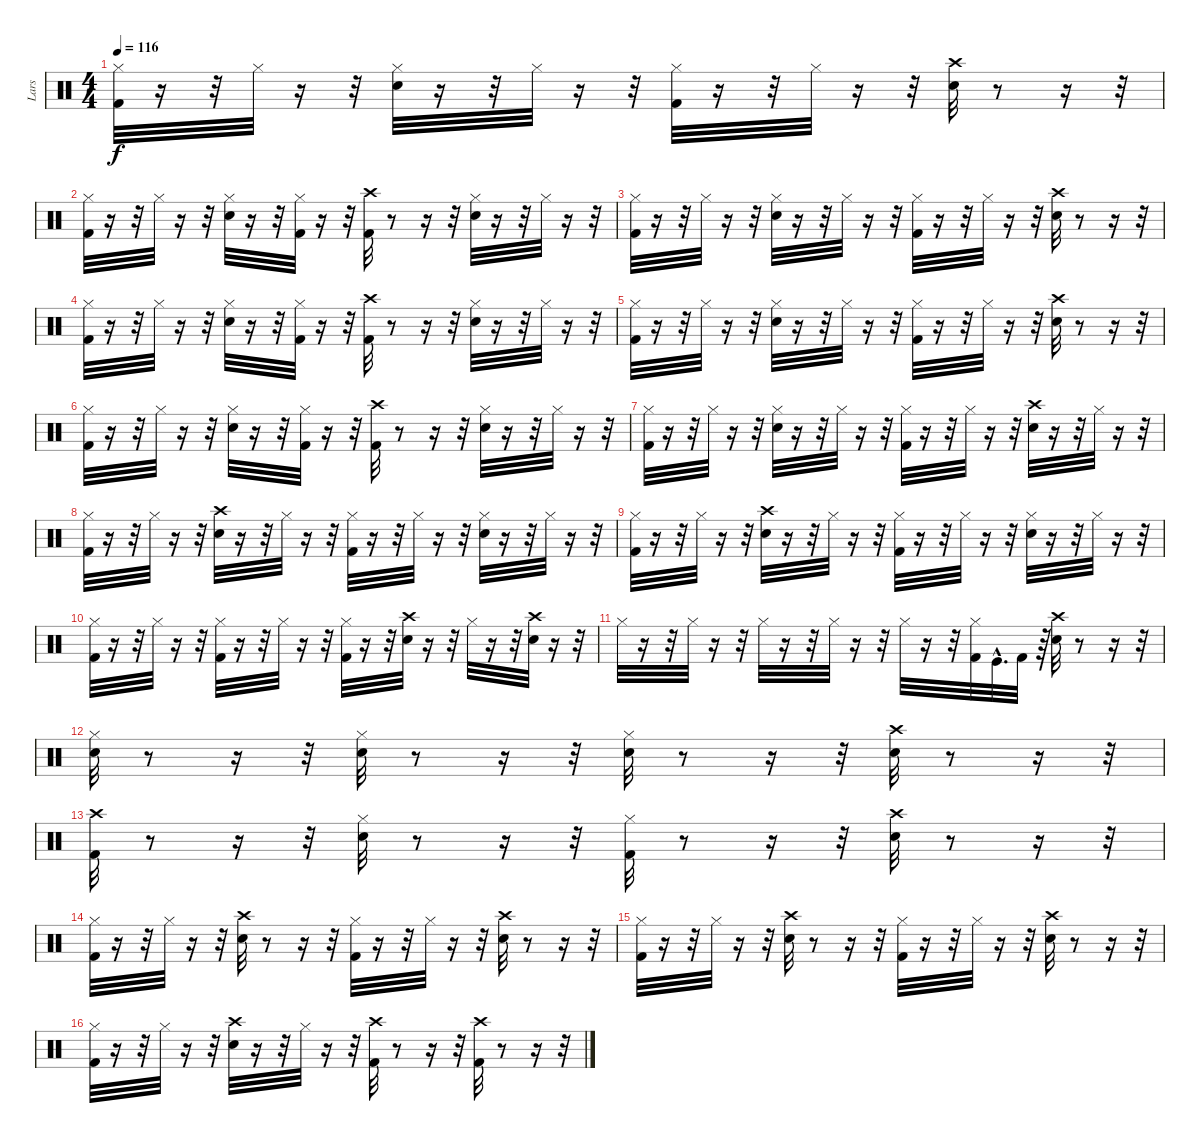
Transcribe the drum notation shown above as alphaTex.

\track ("Lars" "Lars") {instrument percussion}
\staff {score}
\articulation defaults
\ts (4 4)
\tempo 116
\clef neutral
\ks c
("Kick (hit) 2" "Hi-Hat (closed)").32{dy f} r.16 r.32 "Hi-Hat (closed)".32 r.16 r.32 ("Snare (hit) 2" "Hi-Hat (closed)").32 r.16 r.32 "Hi-Hat (closed)".32 r.16 r.32 ("Hi-Hat (closed)" "Kick (hit) 2").32 r.16 r.32 "Hi-Hat (closed)".32 r.16 r.32 ("Crash high (hit)" "Snare (hit) 2").32 r.8 r.16 r.32 |
("Kick (hit) 2" "Hi-Hat (closed)").32 r.16 r.32 "Hi-Hat (closed)".32 r.16 r.32 ("Snare (hit) 2" "Hi-Hat (closed)").32 r.16 r.32 ("Kick (hit) 2" "Hi-Hat (closed)").32 r.16 r.32 ("Crash high (hit)" "Kick (hit) 2").32 r.8 r.16 r.32 ("Hi-Hat (closed)" "Snare (hit) 2").32 r.16 r.32 "Hi-Hat (closed)".32 r.16 r.32 |
("Kick (hit) 2" "Hi-Hat (closed)").32 r.16 r.32 "Hi-Hat (closed)".32 r.16 r.32 ("Snare (hit) 2" "Hi-Hat (closed)").32 r.16 r.32 "Hi-Hat (closed)".32 r.16 r.32 ("Hi-Hat (closed)" "Kick (hit) 2").32 r.16 r.32 "Hi-Hat (closed)".32 r.16 r.32 ("Crash high (hit)" "Snare (hit) 2").32 r.8 r.16 r.32 |
("Kick (hit) 2" "Hi-Hat (closed)").32 r.16 r.32 "Hi-Hat (closed)".32 r.16 r.32 ("Snare (hit) 2" "Hi-Hat (closed)").32 r.16 r.32 ("Kick (hit) 2" "Hi-Hat (closed)").32 r.16 r.32 ("Crash high (hit)" "Kick (hit) 2").32 r.8 r.16 r.32 ("Hi-Hat (closed)" "Snare (hit) 2").32 r.16 r.32 "Hi-Hat (closed)".32 r.16 r.32 |
("Kick (hit) 2" "Hi-Hat (closed)").32 r.16 r.32 "Hi-Hat (closed)".32 r.16 r.32 ("Snare (hit) 2" "Hi-Hat (closed)").32 r.16 r.32 "Hi-Hat (closed)".32 r.16 r.32 ("Hi-Hat (closed)" "Kick (hit) 2").32 r.16 r.32 "Hi-Hat (closed)".32 r.16 r.32 ("Crash high (hit)" "Snare (hit) 2").32 r.8 r.16 r.32 |
("Kick (hit) 2" "Hi-Hat (closed)").32 r.16 r.32 "Hi-Hat (closed)".32 r.16 r.32 ("Snare (hit) 2" "Hi-Hat (closed)").32 r.16 r.32 ("Kick (hit) 2" "Hi-Hat (closed)").32 r.16 r.32 ("Crash high (hit)" "Kick (hit) 2").32 r.8 r.16 r.32 ("Hi-Hat (closed)" "Snare (hit) 2").32 r.16 r.32 "Hi-Hat (closed)".32 r.16 r.32 |
("Kick (hit) 2" "Hi-Hat (closed)").32 r.16 r.32 "Hi-Hat (closed)".32 r.16 r.32 ("Snare (hit) 2" "Hi-Hat (closed)").32 r.16 r.32 "Hi-Hat (closed)".32 r.16 r.32 ("Hi-Hat (closed)" "Kick (hit) 2").32 r.16 r.32 "Hi-Hat (closed)".32 r.16 r.32 ("Crash high (hit)" "Snare (hit) 2").32 r.16 r.32 "Hi-Hat (closed)".32 r.16 r.32 |
("Hi-Hat (closed)" "Kick (hit) 2").32 r.16 r.32 "Hi-Hat (closed)".32 r.16 r.32 ("Crash high (hit)" "Snare (hit) 2").32 r.16 r.32 "Hi-Hat (closed)".32 r.16 r.32 ("Hi-Hat (closed)" "Kick (hit) 2").32 r.16 r.32 "Hi-Hat (closed)".32 r.16 r.32 ("Hi-Hat (closed)" "Snare (hit) 2").32 r.16 r.32 "Hi-Hat (closed)".32 r.16 r.32 |
("Hi-Hat (closed)" "Kick (hit) 2").32 r.16 r.32 "Hi-Hat (closed)".32 r.16 r.32 ("Crash high (hit)" "Snare (hit) 2").32 r.16 r.32 "Hi-Hat (closed)".32 r.16 r.32 ("Hi-Hat (closed)" "Kick (hit) 2").32 r.16 r.32 "Hi-Hat (closed)".32 r.16 r.32 ("Hi-Hat (closed)" "Snare (hit) 2").32 r.16 r.32 "Hi-Hat (closed)".32 r.16 r.32 |
("Hi-Hat (closed)" "Kick (hit) 2").32 r.16 r.32 "Hi-Hat (closed)".32 r.16 r.32 ("Hi-Hat (closed)" "Kick (hit) 2").32 r.16 r.32 "Hi-Hat (closed)".32 r.16 r.32 ("Hi-Hat (closed)" "Kick (hit) 2").32 r.16 r.32 ("Crash high (hit)" "Snare (hit) 2").32 r.16 r.32 "Hi-Hat (closed)".32 r.16 r.32 ("Snare (hit) 2" "Crash high (hit)").32 r.16 r.32 |
"Hi-Hat (closed)".32 r.16 r.32 "Hi-Hat (closed)".32 r.16 r.32 "Hi-Hat (closed)".32 r.16 r.32 "Hi-Hat (closed)".32 r.16 r.32 "Hi-Hat (closed)".32 r.16 r.32 ("Kick (hit) 2" "Hi-Hat (closed)").32 "Kick (hit)"{hac}.32{d} "Kick (hit) 2".32 r.64 ("Crash high (hit)" "Snare (hit) 2").32 r.8 r.16 r.32 |
("Hi-Hat (closed)" "Snare (hit) 2").32 r.8 r.16 r.32 ("Hi-Hat (closed)" "Snare (hit) 2").32 r.8 r.16 r.32 ("Hi-Hat (closed)" "Snare (hit) 2").32 r.8 r.16 r.32 ("Crash high (hit)" "Snare (hit) 2").32 r.8 r.16 r.32 |
("Kick (hit) 2" "Crash high (hit)").32 r.8 r.16 r.32 ("Hi-Hat (closed)" "Snare (hit) 2").32 r.8 r.16 r.32 ("Hi-Hat (closed)" "Kick (hit) 2").32 r.8 r.16 r.32 ("Crash high (hit)" "Snare (hit) 2").32 r.8 r.16 r.32 |
("Kick (hit) 2" "Hi-Hat (closed)").32 r.16 r.32 "Hi-Hat (closed)".32 r.16 r.32 ("Crash high (hit)" "Snare (hit) 2").32 r.8 r.16 r.32 ("Hi-Hat (closed)" "Kick (hit) 2").32 r.16 r.32 "Hi-Hat (closed)".32 r.16 r.32 ("Crash high (hit)" "Snare (hit) 2").32 r.8 r.16 r.32 |
("Kick (hit) 2" "Hi-Hat (closed)").32 r.16 r.32 "Hi-Hat (closed)".32 r.16 r.32 ("Crash high (hit)" "Snare (hit) 2").32 r.8 r.16 r.32 ("Hi-Hat (closed)" "Kick (hit) 2").32 r.16 r.32 "Hi-Hat (closed)".32 r.16 r.32 ("Crash high (hit)" "Snare (hit) 2").32 r.8 r.16 r.32 |
("Hi-Hat (closed)" "Kick (hit) 2").32 r.16 r.32 "Hi-Hat (closed)".32 r.16 r.32 ("Crash high (hit)" "Snare (hit) 2").32 r.16 r.32 "Hi-Hat (closed)".32 r.16 r.32 ("Crash high (hit)" "Kick (hit) 2").32 r.8 r.16 r.32 ("Crash high (hit)" "Kick (hit) 2").32 r.8 r.16 r.32
